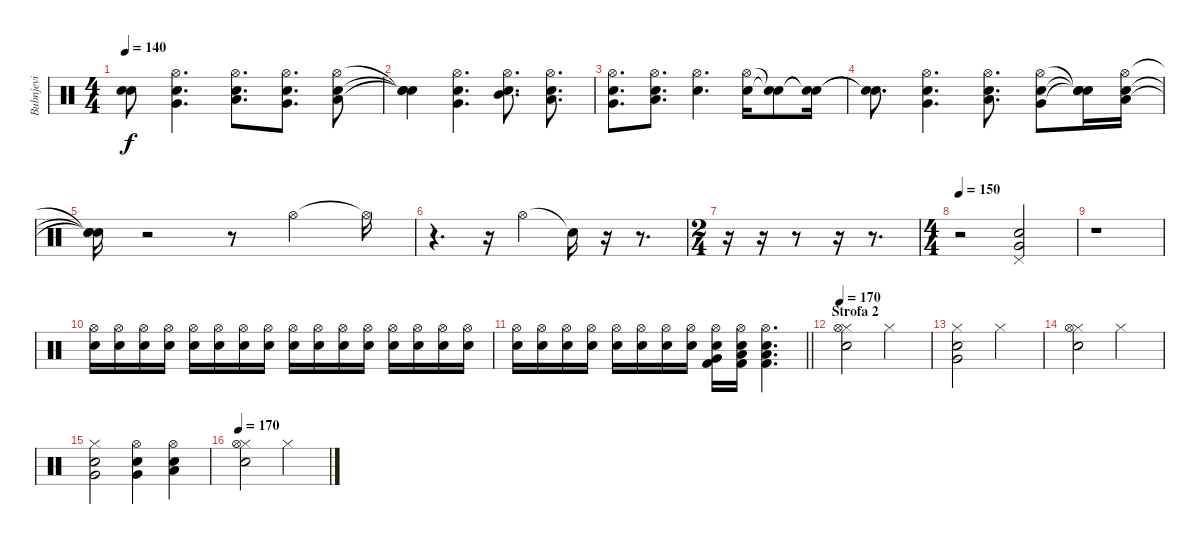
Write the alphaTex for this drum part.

\track ("Bubnjevi" "Bubnjevi") {instrument percussion}
\staff {score}
\articulation defaults
\ts (4 4)
\tempo 140
\clef neutral
\ks c
("Snare (hit)"{t} "Snare (hit)"{t}).8{dy f} ("Hi-Hat (open)" "Electric Snare (hit)" "Very Low Tom (hit)").4{d} ("Hi-Hat (open)" "Low Tom (hit)" "Electric Snare (hit)").8{d} ("Hi-Hat (open)" "Very Low Tom (hit)" "Electric Snare (hit)").8{d} ("Hi-Hat (open)" "Low Tom (hit)" "Electric Snare (hit)").8 |
("Snare (hit)"{t} "Snare (hit)"{t} "Snare (hit)"{t}).4 ("Hi-Hat (open)" "Very Low Tom (hit)" "Electric Snare (hit)").4{d} ("Hi-Hat (open)" "Mid Tom (hit)" "Electric Snare (hit)").8{d} ("Hi-Hat (open)" "Low Tom (hit)" "Electric Snare (hit)").8{d} |
("Hi-Hat (open)" "Very Low Tom (hit)" "Electric Snare (hit)").8{d} ("Hi-Hat (open)" "Low Floor Tom (hit)" "Electric Snare (hit)").8{d} ("Hi-Hat (open)" "Electric Snare (hit)").4{d} ("Hi-Hat (open)" "Electric Snare (hit)").16 ("Snare (hit)"{t} "Snare (hit)"{t}).8 ("Snare (hit)"{t} "Snare (hit)"{t}).16 |
("Snare (hit)"{t} "Snare (hit)"{t}).8{d} ("Hi-Hat (open)" "Electric Snare (hit)" "Very Low Tom (hit)").4{d} ("Hi-Hat (open)" "Low Tom (hit)" "Electric Snare (hit)").8{d} ("Hi-Hat (open)" "Very Low Tom (hit)" "Electric Snare (hit)").8 ("Snare (hit)"{t} "Snare (hit)"{t} "Snare (hit)"{t}).16 ("Hi-Hat (open)" "Low Tom (hit)" "Electric Snare (hit)").16 |
("Snare (hit)"{t} "Snare (hit)"{t} "Snare (hit)"{t}).16 r.2 r.8 "Hi-Hat (open)".4 "Hi-Hat (open)"{t}.16 |
r.4{d} r.16 "Hi-Hat (open)".4 "Snare (hit)"{t}.16 r.16 r.8{d} |
\ts (2 4)
r.16 r.16 r.8 r.16 r.8{d} |
\ts (4 4)
\tempo 150
r.2 ("Pedal Hi-Hat (hit)" "Very Low Tom (hit)" "Electric Snare (hit)").2 |
r.1 |
("Hi-Hat (open)" "Electric Snare (hit)").16 ("Hi-Hat (open)" "Electric Snare (hit)").16 ("Hi-Hat (open)" "Electric Snare (hit)").16 ("Hi-Hat (open)" "Electric Snare (hit)").16 ("Hi-Hat (open)" "Electric Snare (hit)").16 ("Hi-Hat (open)" "Electric Snare (hit)").16 ("Hi-Hat (open)" "Electric Snare (hit)").16 ("Hi-Hat (open)" "Electric Snare (hit)").16 ("Hi-Hat (open)" "Electric Snare (hit)").16 ("Hi-Hat (open)" "Electric Snare (hit)").16 ("Hi-Hat (open)" "Electric Snare (hit)").16 ("Hi-Hat (open)" "Electric Snare (hit)").16 ("Hi-Hat (open)" "Electric Snare (hit)").16 ("Hi-Hat (open)" "Electric Snare (hit)").16 ("Hi-Hat (open)" "Electric Snare (hit)").16 ("Hi-Hat (open)" "Electric Snare (hit)").16 |
\barLineRight lightlight
("Hi-Hat (open)" "Electric Snare (hit)").16 ("Hi-Hat (open)" "Electric Snare (hit)").16 ("Hi-Hat (open)" "Electric Snare (hit)").16 ("Hi-Hat (open)" "Electric Snare (hit)").16 ("Hi-Hat (open)" "Electric Snare (hit)").16 ("Hi-Hat (open)" "Electric Snare (hit)").16 ("Hi-Hat (open)" "Electric Snare (hit)").16 ("Hi-Hat (open)" "Electric Snare (hit)").16 ("Hi-Hat (open)" "Kick (hit) 2" "Very Low Tom (hit)" "Electric Snare (hit)").16 ("Hi-Hat (open)" "Kick (hit) 2" "Low Tom (hit)" "Electric Snare (hit)").16 ("Hi-Hat (open)" "Kick (hit) 2" "Low Floor Tom (hit)" "Electric Snare (hit)").4{d} |
\section ("" "Strofa 2")
\tempo 170
("Hi-Hat (closed)" "Hi-Hat (open)" "Electric Snare (hit)").2 "Hi-Hat (closed)".2 |
("Hi-Hat (closed)" "Very Low Tom (hit)" "Electric Snare (hit)").2 "Hi-Hat (closed)".2 |
("Hi-Hat (closed)" "Hi-Hat (open)" "Electric Snare (hit)").2 "Hi-Hat (closed)".2 |
("Hi-Hat (closed)" "Very Low Tom (hit)" "Electric Snare (hit)").2 ("Hi-Hat (open)" "Very Low Tom (hit)" "Electric Snare (hit)").4 ("Hi-Hat (open)" "Low Tom (hit)" "Electric Snare (hit)").4 |
\tempo 170
("Hi-Hat (closed)" "Hi-Hat (open)" "Electric Snare (hit)").2 "Hi-Hat (closed)".2
